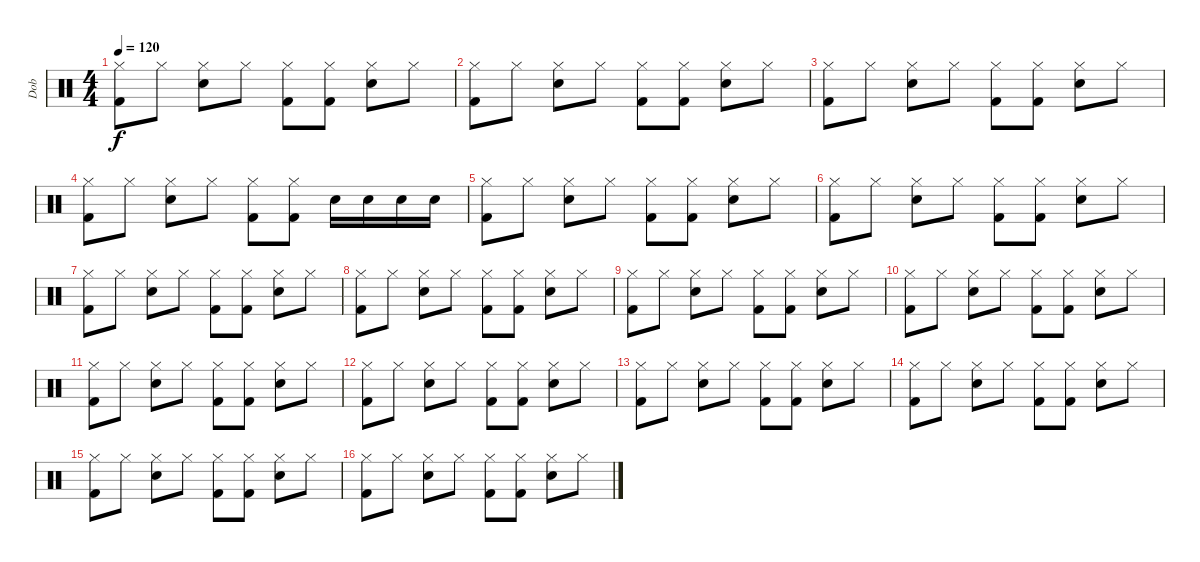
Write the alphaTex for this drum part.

\track ("Dob" "Dob") {instrument percussion}
\staff {score}
\articulation defaults
\ts (4 4)
\tempo 120
\clef neutral
\ks c
("Hi-Hat (closed)" "Kick (hit) 2").8{dy f} "Hi-Hat (closed)".8 ("Hi-Hat (closed)" "Snare (hit) 2").8 "Hi-Hat (closed)".8 ("Hi-Hat (closed)" "Kick (hit) 2").8 ("Hi-Hat (closed)" "Kick (hit) 2").8 ("Hi-Hat (closed)" "Snare (hit) 2").8 "Hi-Hat (closed)".8 |
("Hi-Hat (closed)" "Kick (hit) 2").8 "Hi-Hat (closed)".8 ("Hi-Hat (closed)" "Snare (hit) 2").8 "Hi-Hat (closed)".8 ("Hi-Hat (closed)" "Kick (hit) 2").8 ("Hi-Hat (closed)" "Kick (hit) 2").8 ("Hi-Hat (closed)" "Snare (hit) 2").8 "Hi-Hat (closed)".8 |
("Hi-Hat (closed)" "Kick (hit) 2").8 "Hi-Hat (closed)".8 ("Hi-Hat (closed)" "Snare (hit) 2").8 "Hi-Hat (closed)".8 ("Hi-Hat (closed)" "Kick (hit) 2").8 ("Hi-Hat (closed)" "Kick (hit) 2").8 ("Hi-Hat (closed)" "Snare (hit) 2").8 "Hi-Hat (closed)".8 |
("Hi-Hat (closed)" "Kick (hit) 2").8 "Hi-Hat (closed)".8 ("Hi-Hat (closed)" "Snare (hit) 2").8 "Hi-Hat (closed)".8 ("Hi-Hat (closed)" "Kick (hit) 2").8 ("Hi-Hat (closed)" "Kick (hit) 2").8 "Snare (hit) 2".16 "Snare (hit) 2".16 "Snare (hit) 2".16 "Snare (hit) 2".16 |
("Hi-Hat (closed)" "Kick (hit) 2").8 "Hi-Hat (closed)".8 ("Hi-Hat (closed)" "Snare (hit) 2").8 "Hi-Hat (closed)".8 ("Hi-Hat (closed)" "Kick (hit) 2").8 ("Hi-Hat (closed)" "Kick (hit) 2").8 ("Hi-Hat (closed)" "Snare (hit) 2").8 "Hi-Hat (closed)".8 |
("Hi-Hat (closed)" "Kick (hit) 2").8 "Hi-Hat (closed)".8 ("Hi-Hat (closed)" "Snare (hit) 2").8 "Hi-Hat (closed)".8 ("Hi-Hat (closed)" "Kick (hit) 2").8 ("Hi-Hat (closed)" "Kick (hit) 2").8 ("Hi-Hat (closed)" "Snare (hit) 2").8 "Hi-Hat (closed)".8 |
("Hi-Hat (closed)" "Kick (hit) 2").8 "Hi-Hat (closed)".8 ("Hi-Hat (closed)" "Snare (hit) 2").8 "Hi-Hat (closed)".8 ("Hi-Hat (closed)" "Kick (hit) 2").8 ("Hi-Hat (closed)" "Kick (hit) 2").8 ("Hi-Hat (closed)" "Snare (hit) 2").8 "Hi-Hat (closed)".8 |
("Hi-Hat (closed)" "Kick (hit) 2").8 "Hi-Hat (closed)".8 ("Hi-Hat (closed)" "Snare (hit) 2").8 "Hi-Hat (closed)".8 ("Hi-Hat (closed)" "Kick (hit) 2").8 ("Hi-Hat (closed)" "Kick (hit) 2").8 ("Hi-Hat (closed)" "Snare (hit) 2").8 "Hi-Hat (closed)".8 |
("Hi-Hat (closed)" "Kick (hit) 2").8 "Hi-Hat (closed)".8 ("Hi-Hat (closed)" "Snare (hit) 2").8 "Hi-Hat (closed)".8 ("Hi-Hat (closed)" "Kick (hit) 2").8 ("Hi-Hat (closed)" "Kick (hit) 2").8 ("Hi-Hat (closed)" "Snare (hit) 2").8 "Hi-Hat (closed)".8 |
("Hi-Hat (closed)" "Kick (hit) 2").8 "Hi-Hat (closed)".8 ("Hi-Hat (closed)" "Snare (hit) 2").8 "Hi-Hat (closed)".8 ("Hi-Hat (closed)" "Kick (hit) 2").8 ("Hi-Hat (closed)" "Kick (hit) 2").8 ("Hi-Hat (closed)" "Snare (hit) 2").8 "Hi-Hat (closed)".8 |
("Hi-Hat (closed)" "Kick (hit) 2").8 "Hi-Hat (closed)".8 ("Hi-Hat (closed)" "Snare (hit) 2").8 "Hi-Hat (closed)".8 ("Hi-Hat (closed)" "Kick (hit) 2").8 ("Hi-Hat (closed)" "Kick (hit) 2").8 ("Hi-Hat (closed)" "Snare (hit) 2").8 "Hi-Hat (closed)".8 |
("Hi-Hat (closed)" "Kick (hit) 2").8 "Hi-Hat (closed)".8 ("Hi-Hat (closed)" "Snare (hit) 2").8 "Hi-Hat (closed)".8 ("Hi-Hat (closed)" "Kick (hit) 2").8 ("Hi-Hat (closed)" "Kick (hit) 2").8 ("Hi-Hat (closed)" "Snare (hit) 2").8 "Hi-Hat (closed)".8 |
("Hi-Hat (closed)" "Kick (hit) 2").8 "Hi-Hat (closed)".8 ("Hi-Hat (closed)" "Snare (hit) 2").8 "Hi-Hat (closed)".8 ("Hi-Hat (closed)" "Kick (hit) 2").8 ("Hi-Hat (closed)" "Kick (hit) 2").8 ("Hi-Hat (closed)" "Snare (hit) 2").8 "Hi-Hat (closed)".8 |
("Hi-Hat (closed)" "Kick (hit) 2").8 "Hi-Hat (closed)".8 ("Hi-Hat (closed)" "Snare (hit) 2").8 "Hi-Hat (closed)".8 ("Hi-Hat (closed)" "Kick (hit) 2").8 ("Hi-Hat (closed)" "Kick (hit) 2").8 ("Hi-Hat (closed)" "Snare (hit) 2").8 "Hi-Hat (closed)".8 |
("Hi-Hat (closed)" "Kick (hit) 2").8 "Hi-Hat (closed)".8 ("Hi-Hat (closed)" "Snare (hit) 2").8 "Hi-Hat (closed)".8 ("Hi-Hat (closed)" "Kick (hit) 2").8 ("Hi-Hat (closed)" "Kick (hit) 2").8 ("Hi-Hat (closed)" "Snare (hit) 2").8 "Hi-Hat (closed)".8 |
("Hi-Hat (closed)" "Kick (hit) 2").8 "Hi-Hat (closed)".8 ("Hi-Hat (closed)" "Snare (hit) 2").8 "Hi-Hat (closed)".8 ("Hi-Hat (closed)" "Kick (hit) 2").8 ("Hi-Hat (closed)" "Kick (hit) 2").8 ("Hi-Hat (closed)" "Snare (hit) 2").8 "Hi-Hat (closed)".8
